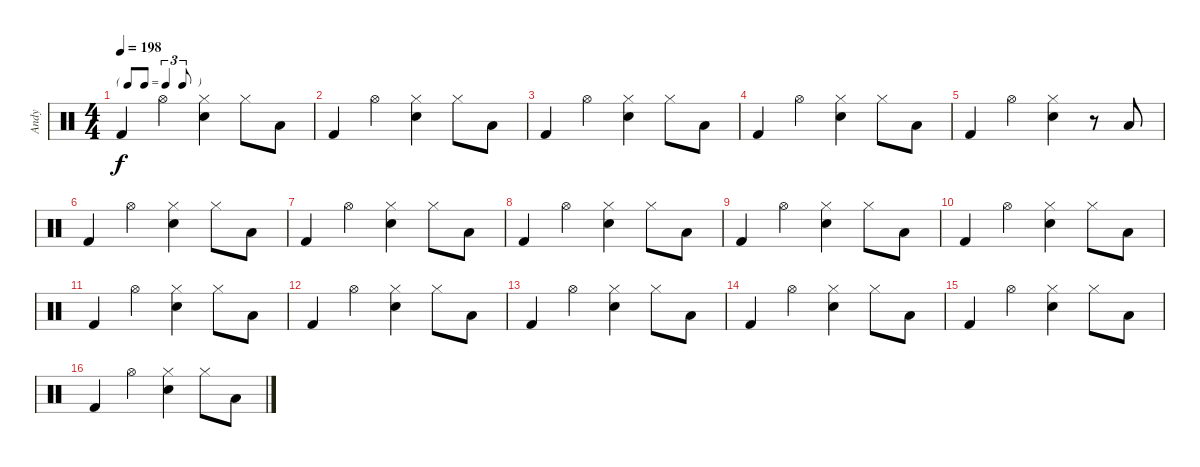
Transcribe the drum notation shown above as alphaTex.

\track ("Andy" "Andy") {instrument percussion}
\staff {score}
\articulation defaults
\ts (4 4)
\tf triplet8th
\tempo 198
\clef neutral
\ks c "Kick (hit) 2".4{dy f} "Hi-Hat (open)".4
("Hi-Hat (closed)" "Electric Snare (hit)").4 "Hi-Hat (closed)".8 "Low Floor Tom (hit)".8 |
"Kick (hit) 2".4 "Hi-Hat (open)".4 ("Hi-Hat (closed)" "Electric Snare (hit)").4 "Hi-Hat (closed)".8 "Low Floor Tom (hit)".8 |
"Kick (hit) 2".4 "Hi-Hat (open)".4 ("Hi-Hat (closed)" "Electric Snare (hit)").4 "Hi-Hat (closed)".8 "Low Floor Tom (hit)".8 |
"Kick (hit) 2".4 "Hi-Hat (open)".4 ("Hi-Hat (closed)" "Electric Snare (hit)").4 "Hi-Hat (closed)".8 "Low Floor Tom (hit)".8 |
"Kick (hit) 2".4 "Hi-Hat (open)".4 ("Hi-Hat (closed)" "Electric Snare (hit)").4 r.8 "Low Floor Tom (hit)".8 |
"Kick (hit) 2".4 "Hi-Hat (open)".4 ("Hi-Hat (closed)" "Electric Snare (hit)").4 "Hi-Hat (closed)".8 "Low Floor Tom (hit)".8 |
"Kick (hit) 2".4 "Hi-Hat (open)".4 ("Hi-Hat (closed)" "Electric Snare (hit)").4 "Hi-Hat (closed)".8 "Low Floor Tom (hit)".8 |
"Kick (hit) 2".4 "Hi-Hat (open)".4 ("Hi-Hat (closed)" "Electric Snare (hit)").4 "Hi-Hat (closed)".8 "Low Floor Tom (hit)".8 |
"Kick (hit) 2".4 "Hi-Hat (open)".4 ("Hi-Hat (closed)" "Electric Snare (hit)").4 "Hi-Hat (closed)".8 "Low Floor Tom (hit)".8 |
"Kick (hit) 2".4 "Hi-Hat (open)".4 ("Hi-Hat (closed)" "Electric Snare (hit)").4 "Hi-Hat (closed)".8 "Low Floor Tom (hit)".8 |
"Kick (hit) 2".4 "Hi-Hat (open)".4 ("Hi-Hat (closed)" "Electric Snare (hit)").4 "Hi-Hat (closed)".8 "Low Floor Tom (hit)".8 |
"Kick (hit) 2".4 "Hi-Hat (open)".4 ("Hi-Hat (closed)" "Electric Snare (hit)").4 "Hi-Hat (closed)".8 "Low Floor Tom (hit)".8 |
"Kick (hit) 2".4 "Hi-Hat (open)".4 ("Hi-Hat (closed)" "Electric Snare (hit)").4 "Hi-Hat (closed)".8 "Low Floor Tom (hit)".8 |
"Kick (hit) 2".4 "Hi-Hat (open)".4 ("Hi-Hat (closed)" "Electric Snare (hit)").4 "Hi-Hat (closed)".8 "Low Floor Tom (hit)".8 |
"Kick (hit) 2".4 "Hi-Hat (open)".4 ("Hi-Hat (closed)" "Electric Snare (hit)").4 "Hi-Hat (closed)".8 "Low Floor Tom (hit)".8 |
"Kick (hit) 2".4 "Hi-Hat (open)".4 ("Hi-Hat (closed)" "Electric Snare (hit)").4 "Hi-Hat (closed)".8 "Low Floor Tom (hit)".8
